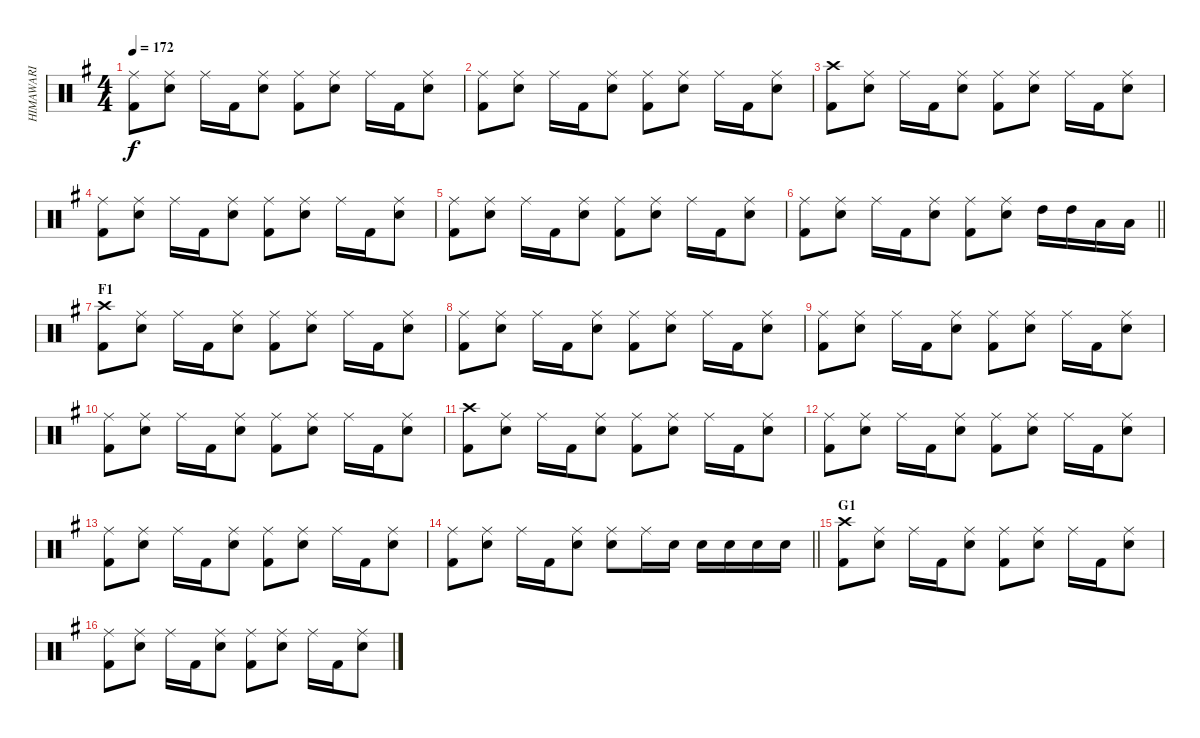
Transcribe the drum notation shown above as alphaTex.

\track ("HIMAWARI" "HIMAWARI") {instrument percussion}
\staff {score}
\articulation defaults
\ts (4 4)
\tempo 172
\clef neutral
\ks g
("Ride (middle)" "Kick (hit) 2").8{dy f} ("Ride (middle)" "Snare (hit) 2").8 "Ride (middle)".16 "Kick (hit) 2".16 ("Ride (middle)" "Snare (hit) 2").8 ("Ride (middle)" "Kick (hit) 2").8 ("Ride (middle)" "Snare (hit) 2").8 "Ride (middle)".16 "Kick (hit) 2".16 ("Ride (middle)" "Snare (hit) 2").8 |
("Ride (middle)" "Kick (hit) 2").8 ("Ride (middle)" "Snare (hit) 2").8 "Ride (middle)".16 "Kick (hit) 2".16 ("Ride (middle)" "Snare (hit) 2").8 ("Ride (middle)" "Kick (hit) 2").8 ("Ride (middle)" "Snare (hit) 2").8 "Ride (middle)".16 "Kick (hit) 2".16 ("Ride (middle)" "Snare (hit) 2").8 |
("Crash high (hit)" "Kick (hit) 2").8 ("Ride (middle)" "Snare (hit) 2").8 "Ride (middle)".16 "Kick (hit) 2".16 ("Ride (middle)" "Snare (hit) 2").8 ("Ride (middle)" "Kick (hit) 2").8 ("Ride (middle)" "Snare (hit) 2").8 "Ride (middle)".16 "Kick (hit) 2".16 ("Ride (middle)" "Snare (hit) 2").8 |
("Ride (middle)" "Kick (hit) 2").8 ("Ride (middle)" "Snare (hit) 2").8 "Ride (middle)".16 "Kick (hit) 2".16 ("Ride (middle)" "Snare (hit) 2").8 ("Ride (middle)" "Kick (hit) 2").8 ("Ride (middle)" "Snare (hit) 2").8 "Ride (middle)".16 "Kick (hit) 2".16 ("Ride (middle)" "Snare (hit) 2").8 |
("Ride (middle)" "Kick (hit) 2").8 ("Ride (middle)" "Snare (hit) 2").8 "Ride (middle)".16 "Kick (hit) 2".16 ("Ride (middle)" "Snare (hit) 2").8 ("Ride (middle)" "Kick (hit) 2").8 ("Ride (middle)" "Snare (hit) 2").8 "Ride (middle)".16 "Kick (hit) 2".16 ("Ride (middle)" "Snare (hit) 2").8 |
\barLineRight lightlight
("Ride (middle)" "Kick (hit) 2").8 ("Ride (middle)" "Snare (hit) 2").8 "Ride (middle)".16 "Kick (hit) 2".16 ("Ride (middle)" "Snare (hit) 2").8 ("Ride (middle)" "Kick (hit) 2").8 ("Ride (middle)" "Snare (hit) 2").8 "High Tom (hit)".16 "High Tom (hit)".16 "Low Tom (hit)".16 "Low Tom (hit)".16 |
\section ("" "F1")
("Crash high (hit)" "Kick (hit) 2").8 ("Ride (middle)" "Snare (hit) 2").8 "Ride (middle)".16 "Kick (hit) 2".16 ("Ride (middle)" "Snare (hit) 2").8 ("Ride (middle)" "Kick (hit) 2").8 ("Ride (middle)" "Snare (hit) 2").8 "Ride (middle)".16 "Kick (hit) 2".16 ("Ride (middle)" "Snare (hit) 2").8 |
("Ride (middle)" "Kick (hit) 2").8 ("Ride (middle)" "Snare (hit) 2").8 "Ride (middle)".16 "Kick (hit) 2".16 ("Ride (middle)" "Snare (hit) 2").8 ("Ride (middle)" "Kick (hit) 2").8 ("Ride (middle)" "Snare (hit) 2").8 "Ride (middle)".16 "Kick (hit) 2".16 ("Ride (middle)" "Snare (hit) 2").8 |
("Ride (middle)" "Kick (hit) 2").8 ("Ride (middle)" "Snare (hit) 2").8 "Ride (middle)".16 "Kick (hit) 2".16 ("Ride (middle)" "Snare (hit) 2").8 ("Ride (middle)" "Kick (hit) 2").8 ("Ride (middle)" "Snare (hit) 2").8 "Ride (middle)".16 "Kick (hit) 2".16 ("Ride (middle)" "Snare (hit) 2").8 |
("Ride (middle)" "Kick (hit) 2").8 ("Ride (middle)" "Snare (hit) 2").8 "Ride (middle)".16 "Kick (hit) 2".16 ("Ride (middle)" "Snare (hit) 2").8 ("Ride (middle)" "Kick (hit) 2").8 ("Ride (middle)" "Snare (hit) 2").8 "Ride (middle)".16 "Kick (hit) 2".16 ("Ride (middle)" "Snare (hit) 2").8 |
("Crash high (hit)" "Kick (hit) 2").8 ("Ride (middle)" "Snare (hit) 2").8 "Ride (middle)".16 "Kick (hit) 2".16 ("Ride (middle)" "Snare (hit) 2").8 ("Ride (middle)" "Kick (hit) 2").8 ("Ride (middle)" "Snare (hit) 2").8 "Ride (middle)".16 "Kick (hit) 2".16 ("Ride (middle)" "Snare (hit) 2").8 |
("Ride (middle)" "Kick (hit) 2").8 ("Ride (middle)" "Snare (hit) 2").8 "Ride (middle)".16 "Kick (hit) 2".16 ("Ride (middle)" "Snare (hit) 2").8 ("Ride (middle)" "Kick (hit) 2").8 ("Ride (middle)" "Snare (hit) 2").8 "Ride (middle)".16 "Kick (hit) 2".16 ("Ride (middle)" "Snare (hit) 2").8 |
("Ride (middle)" "Kick (hit) 2").8 ("Ride (middle)" "Snare (hit) 2").8 "Ride (middle)".16 "Kick (hit) 2".16 ("Ride (middle)" "Snare (hit) 2").8 ("Ride (middle)" "Kick (hit) 2").8 ("Ride (middle)" "Snare (hit) 2").8 "Ride (middle)".16 "Kick (hit) 2".16 ("Ride (middle)" "Snare (hit) 2").8 |
\barLineRight lightlight
("Ride (middle)" "Kick (hit) 2").8 ("Ride (middle)" "Snare (hit) 2").8 "Ride (middle)".16 "Kick (hit) 2".16 ("Ride (middle)" "Snare (hit) 2").8 ("Ride (middle)" "Snare (hit) 2").8 "Ride (middle)".16 "Snare (hit) 2".16 "Snare (hit) 2".16 "Snare (hit) 2".16 "Snare (hit) 2".16 "Snare (hit) 2".16 |
\section ("" "G1")
("Crash high (hit)" "Kick (hit) 2").8 ("Ride (middle)" "Snare (hit) 2").8 "Ride (middle)".16 "Kick (hit) 2".16 ("Ride (middle)" "Snare (hit) 2").8 ("Ride (middle)" "Kick (hit) 2").8 ("Ride (middle)" "Snare (hit) 2").8 "Ride (middle)".16 "Kick (hit) 2".16 ("Ride (middle)" "Snare (hit) 2").8 |
("Ride (middle)" "Kick (hit) 2").8 ("Ride (middle)" "Snare (hit) 2").8 "Ride (middle)".16 "Kick (hit) 2".16 ("Ride (middle)" "Snare (hit) 2").8 ("Ride (middle)" "Kick (hit) 2").8 ("Ride (middle)" "Snare (hit) 2").8 "Ride (middle)".16 "Kick (hit) 2".16 ("Ride (middle)" "Snare (hit) 2").8
